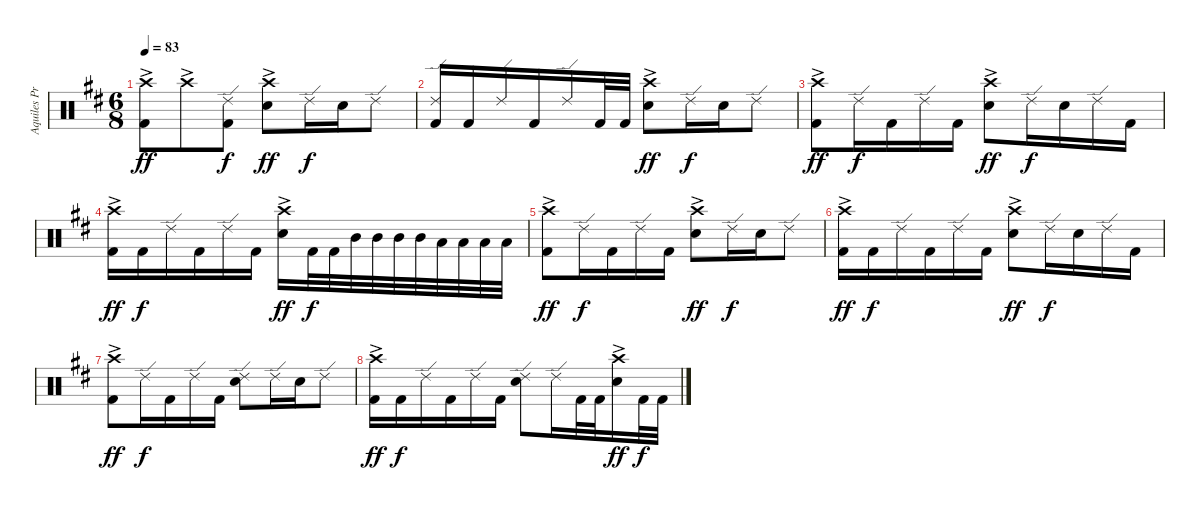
\track ("Aquiles Priester" "Aquiles Pr") {instrument percussion}
\staff {score}
\articulation defaults
\ts (6 8)
\tempo 83
\clef neutral
\ks d
("Crash high (hit)"{ac} "Kick (hit) 2"{ac}).8{dy ff} "Crash high (hit)"{ac}.8 ("Ride (edge) 2" "Kick (hit) 2").8{dy f} ("Crash high (hit)"{ac} "Electric Snare (hit)"{ac}).8{dy ff} "Ride (edge) 2".16{dy f} "Electric Snare (hit)".16 "Ride (edge) 2".8 |
("Ride (edge) 2" "Kick (hit) 2").16 "Kick (hit) 2".16 "Ride (edge) 2".16 "Kick (hit) 2".16 "Ride (edge) 2".16 "Kick (hit) 2".32 "Kick (hit) 2".32 ("Crash high (hit)"{ac} "Electric Snare (hit)"{ac}).8{dy ff} "Ride (edge) 2".16{dy f} "Electric Snare (hit)".16 "Ride (edge) 2".8 |
("Crash high (hit)"{ac} "Kick (hit) 2"{ac}).8{dy ff} "Ride (edge) 2".16{dy f} "Kick (hit) 2".16 "Ride (edge) 2".16 "Kick (hit) 2".16 ("Crash high (hit)"{ac} "Electric Snare (hit)"{ac}).8{dy ff} "Ride (edge) 2".16{dy f} "Electric Snare (hit)".16 "Ride (edge) 2".16 "Kick (hit) 2".16 |
("Crash high (hit)"{ac} "Kick (hit) 2"{ac}).16{dy ff} "Kick (hit) 2".16{dy f} "Ride (edge) 2".16 "Kick (hit) 2".16 "Ride (edge) 2".16 "Kick (hit) 2".16 ("Crash high (hit)"{ac} "Electric Snare (hit)"{ac}).16{dy ff} "Kick (hit) 2".32{dy f} "Kick (hit) 2".32 "Mid Tom (hit)".32 "Mid Tom (hit)".32 "Mid Tom (hit)".32 "Mid Tom (hit)".32 "Low Tom (hit)".32 "Low Tom (hit)".32 "Low Tom (hit)".32 "Low Tom (hit)".32 |
("Crash high (hit)"{ac} "Kick (hit) 2"{ac}).8{dy ff} "Ride (edge) 2".16{dy f} "Kick (hit) 2".16 "Ride (edge) 2".16 "Kick (hit) 2".16 ("Crash high (hit)"{ac} "Electric Snare (hit)"{ac}).8{dy ff} "Ride (edge) 2".16{dy f} "Electric Snare (hit)".16 "Ride (edge) 2".8 |
("Crash high (hit)"{ac} "Kick (hit) 2"{ac}).16{dy ff} "Kick (hit) 2".16{dy f} "Ride (edge) 2".16 "Kick (hit) 2".16 "Ride (edge) 2".16 "Kick (hit) 2".16 ("Crash high (hit)"{ac} "Electric Snare (hit)"{ac}).8{dy ff} "Ride (edge) 2".16{dy f} "Electric Snare (hit)".16 "Ride (edge) 2".16 "Kick (hit) 2".16 |
("Crash high (hit)"{ac} "Kick (hit) 2"{ac}).8{dy ff} "Ride (edge) 2".16{dy f} "Kick (hit) 2".16 "Ride (edge) 2".16 "Kick (hit) 2".16 ("Ride (edge) 2" "Electric Snare (hit)").8 "Ride (edge) 2".16 "Electric Snare (hit)".16 "Ride (edge) 2".8 |
("Crash high (hit)"{ac} "Kick (hit) 2"{ac}).16{dy ff} "Kick (hit) 2".16{dy f} "Ride (edge) 2".16 "Kick (hit) 2".16 "Ride (edge) 2".16 "Kick (hit) 2".16 ("Ride (edge) 2" "Electric Snare (hit)").8 "Ride (edge) 2".16 "Kick (hit) 2".32 "Kick (hit) 2".32 ("Crash high (hit)"{ac} "Electric Snare (hit)"{ac}).16{dy ff} "Kick (hit) 2".32{dy f} "Kick (hit) 2".32
